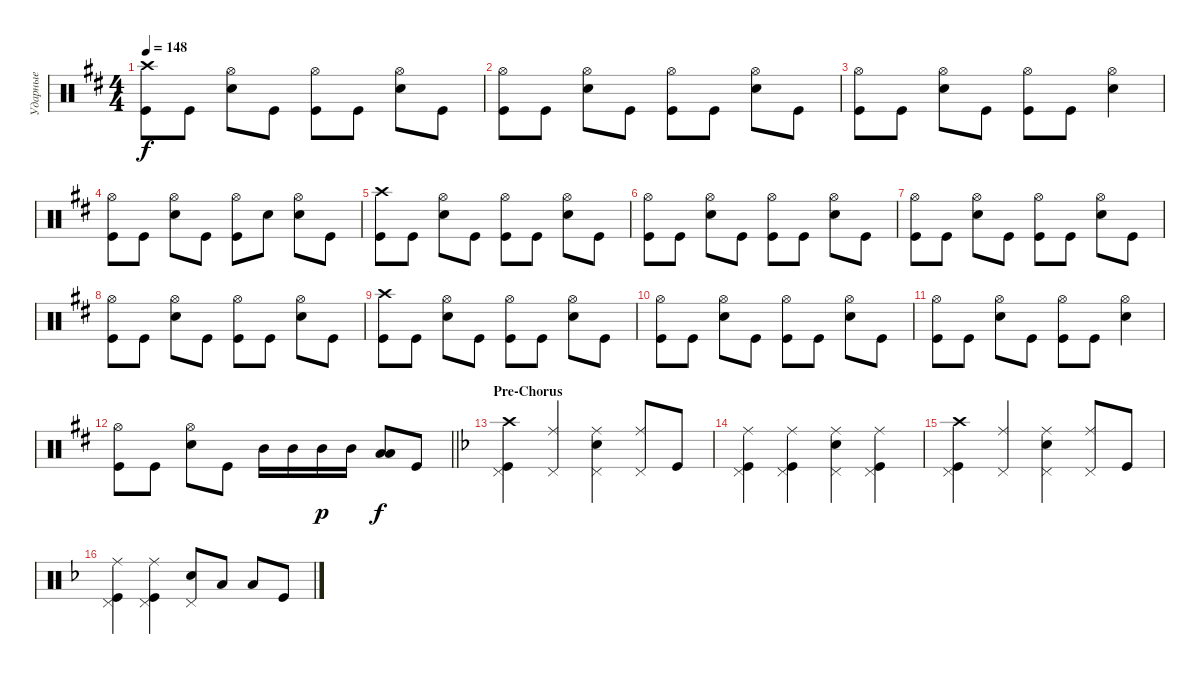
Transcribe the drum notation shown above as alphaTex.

\track ("Ударные" "Ударные") {instrument percussion}
\staff {score}
\articulation defaults
\ts (4 4)
\tempo 148
\clef neutral
\ks bminor
("Crash high (hit)" "Kick (hit)").8{dy f} "Kick (hit)".8 ("Snare (hit) 2" "Hi-Hat (open)").8 "Kick (hit)".8 ("Kick (hit)" "Hi-Hat (open)").8 "Kick (hit)".8 ("Snare (hit) 2" "Hi-Hat (open)").8 "Kick (hit)".8 |
("Hi-Hat (open)" "Kick (hit)").8 "Kick (hit)".8 ("Snare (hit) 2" "Hi-Hat (open)").8 "Kick (hit)".8 ("Kick (hit)" "Hi-Hat (open)").8 "Kick (hit)".8 ("Snare (hit) 2" "Hi-Hat (open)").8 "Kick (hit)".8 |
("Hi-Hat (open)" "Kick (hit)").8 "Kick (hit)".8 ("Snare (hit) 2" "Hi-Hat (open)").8 "Kick (hit)".8 ("Kick (hit)" "Hi-Hat (open)").8 "Kick (hit)".8 ("Snare (hit) 2" "Hi-Hat (open)").4 |
("Hi-Hat (open)" "Kick (hit)").8 "Kick (hit)".8 ("Snare (hit) 2" "Hi-Hat (open)").8 "Kick (hit)".8 ("Kick (hit)" "Hi-Hat (open)").8 "Snare (hit) 2".8 ("Snare (hit) 2" "Hi-Hat (open)").8 "Kick (hit)".8 |
("Crash high (hit)" "Kick (hit)").8 "Kick (hit)".8 ("Snare (hit) 2" "Hi-Hat (open)").8 "Kick (hit)".8 ("Kick (hit)" "Hi-Hat (open)").8 "Kick (hit)".8 ("Snare (hit) 2" "Hi-Hat (open)").8 "Kick (hit)".8 |
("Hi-Hat (open)" "Kick (hit)").8 "Kick (hit)".8 ("Snare (hit) 2" "Hi-Hat (open)").8 "Kick (hit)".8 ("Kick (hit)" "Hi-Hat (open)").8 "Kick (hit)".8 ("Snare (hit) 2" "Hi-Hat (open)").8 "Kick (hit)".8 |
("Hi-Hat (open)" "Kick (hit)").8 "Kick (hit)".8 ("Snare (hit) 2" "Hi-Hat (open)").8 "Kick (hit)".8 ("Kick (hit)" "Hi-Hat (open)").8 "Kick (hit)".8 ("Snare (hit) 2" "Hi-Hat (open)").8 "Kick (hit)".8 |
("Hi-Hat (open)" "Kick (hit)").8 "Kick (hit)".8 ("Snare (hit) 2" "Hi-Hat (open)").8 "Kick (hit)".8 ("Kick (hit)" "Hi-Hat (open)").8 "Kick (hit)".8 ("Snare (hit) 2" "Hi-Hat (open)").8 "Kick (hit)".8 |
("Crash high (hit)" "Kick (hit)").8 "Kick (hit)".8 ("Snare (hit) 2" "Hi-Hat (open)").8 "Kick (hit)".8 ("Kick (hit)" "Hi-Hat (open)").8 "Kick (hit)".8 ("Snare (hit) 2" "Hi-Hat (open)").8 "Kick (hit)".8 |
("Hi-Hat (open)" "Kick (hit)").8 "Kick (hit)".8 ("Snare (hit) 2" "Hi-Hat (open)").8 "Kick (hit)".8 ("Kick (hit)" "Hi-Hat (open)").8 "Kick (hit)".8 ("Snare (hit) 2" "Hi-Hat (open)").8 "Kick (hit)".8 |
("Hi-Hat (open)" "Kick (hit)").8 "Kick (hit)".8 ("Snare (hit) 2" "Hi-Hat (open)").8 "Kick (hit)".8 ("Kick (hit)" "Hi-Hat (open)").8 "Kick (hit)".8 ("Snare (hit) 2" "Hi-Hat (open)").4 |
\barLineRight lightlight
("Hi-Hat (open)" "Kick (hit)").8 "Kick (hit)".8 ("Snare (hit) 2" "Hi-Hat (open)").8 "Kick (hit)".8 "Mid Tom (hit)".16 "Mid Tom (hit)".16 "Mid Tom (hit)".16{dy p} "Mid Tom (hit)".16 ("Low Tom (hit)" "Low Tom (hit)").8{bd 240 dy f} "Kick (hit)".8 |
\section ("" "Pre-Chorus")
\ks dminor
("Kick (hit)" "Crash high (hit)" "Pedal Hi-Hat (hit)").4 ("Pedal Hi-Hat (hit)" "Ride (middle)").4 ("Pedal Hi-Hat (hit)" "Snare (hit) 2" "Ride (middle)").4 ("Pedal Hi-Hat (hit)" "Ride (middle)").8 "Kick (hit)".8 |
("Kick (hit)" "Pedal Hi-Hat (hit)" "Ride (middle)").4 ("Kick (hit)" "Pedal Hi-Hat (hit)" "Ride (middle)").4 ("Snare (hit) 2" "Pedal Hi-Hat (hit)" "Ride (middle)").4 ("Kick (hit)" "Pedal Hi-Hat (hit)" "Ride (middle)").4 |
("Kick (hit)" "Crash high (hit)" "Pedal Hi-Hat (hit)").4 ("Pedal Hi-Hat (hit)" "Ride (middle)").4 ("Pedal Hi-Hat (hit)" "Snare (hit) 2" "Ride (middle)").4 ("Pedal Hi-Hat (hit)" "Ride (middle)").8 "Kick (hit)".8 |
("Kick (hit)" "Pedal Hi-Hat (hit)" "Ride (middle)").4 ("Kick (hit)" "Pedal Hi-Hat (hit)" "Ride (middle)").4 ("Snare (hit) 2" "Pedal Hi-Hat (hit)").8 "Low Tom (hit)".8 "Low Tom (hit)".8 "Kick (hit)".8
